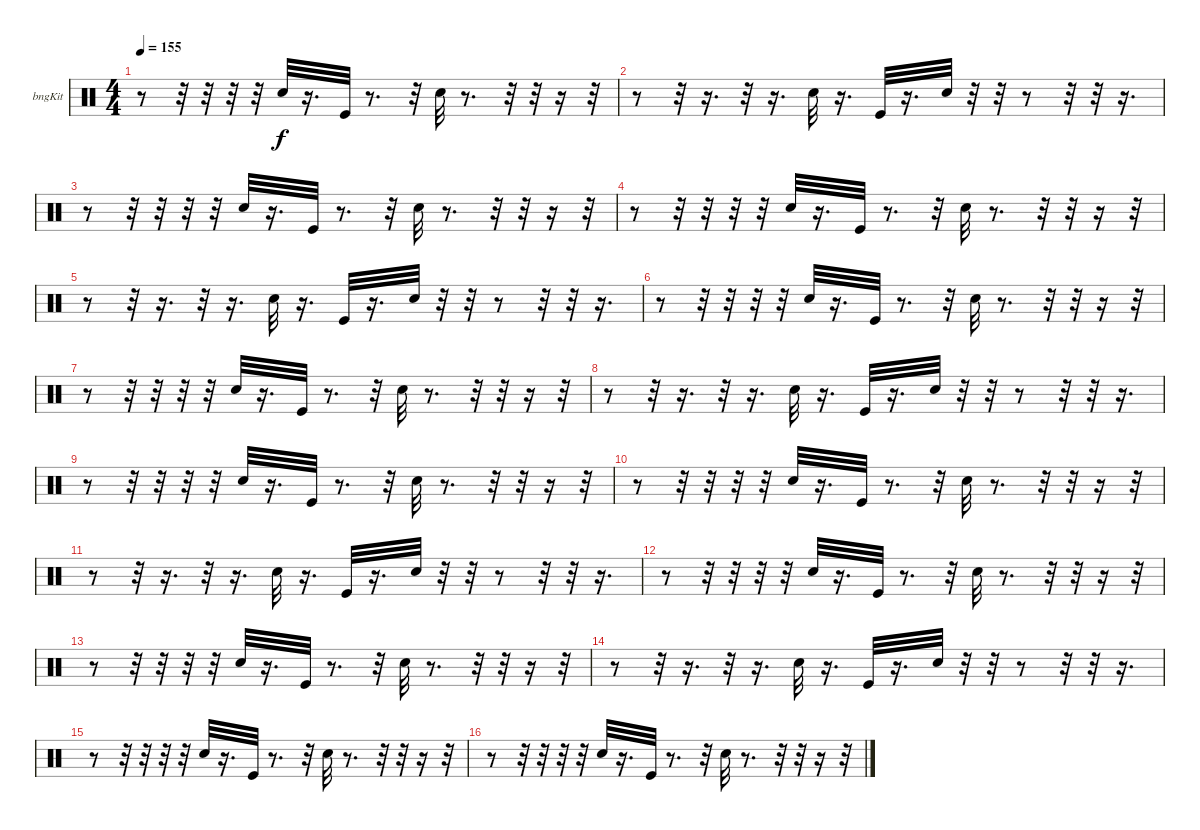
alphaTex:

\bracketExtendMode groupsimilarinstruments
\firstSystemTrackNameOrientation horizontal
\otherSystemsTrackNameOrientation horizontal
\track ("Е. Кулаков" "bngKit") {instrument percussion}
\staff {score}
\articulation defaults
\ts (4 4)
\tempo 155
\clef neutral
\ks c
r.8{dy f} r.32 r.32 r.32 r.32 "Snare (hit) 2".32 r.16{d} "Kick (hit)".32 r.8{d} r.32 "Snare (hit) 2".32 r.8{d} r.32 r.32 r.16 r.32 |
r.8 r.32 r.16{d} r.32 r.16{d} "Snare (hit) 2".32 r.16{d} "Kick (hit)".32 r.16{d} "Snare (hit) 2".32 r.32 r.32 r.8 r.32 r.32 r.16{d} |
r.8 r.32 r.32 r.32 r.32 "Snare (hit) 2".32 r.16{d} "Kick (hit)".32 r.8{d} r.32 "Snare (hit) 2".32 r.8{d} r.32 r.32 r.16 r.32 |
r.8 r.32 r.32 r.32 r.32 "Snare (hit) 2".32 r.16{d} "Kick (hit)".32 r.8{d} r.32 "Snare (hit) 2".32 r.8{d} r.32 r.32 r.16 r.32 |
r.8 r.32 r.16{d} r.32 r.16{d} "Snare (hit) 2".32 r.16{d} "Kick (hit)".32 r.16{d} "Snare (hit) 2".32 r.32 r.32 r.8 r.32 r.32 r.16{d} |
r.8 r.32 r.32 r.32 r.32 "Snare (hit) 2".32 r.16{d} "Kick (hit)".32 r.8{d} r.32 "Snare (hit) 2".32 r.8{d} r.32 r.32 r.16 r.32 |
r.8 r.32 r.32 r.32 r.32 "Snare (hit) 2".32 r.16{d} "Kick (hit)".32 r.8{d} r.32 "Snare (hit) 2".32 r.8{d} r.32 r.32 r.16 r.32 |
r.8 r.32 r.16{d} r.32 r.16{d} "Snare (hit) 2".32 r.16{d} "Kick (hit)".32 r.16{d} "Snare (hit) 2".32 r.32 r.32 r.8 r.32 r.32 r.16{d} |
r.8 r.32 r.32 r.32 r.32 "Snare (hit) 2".32 r.16{d} "Kick (hit)".32 r.8{d} r.32 "Snare (hit) 2".32 r.8{d} r.32 r.32 r.16 r.32 |
r.8 r.32 r.32 r.32 r.32 "Snare (hit) 2".32 r.16{d} "Kick (hit)".32 r.8{d} r.32 "Snare (hit) 2".32 r.8{d} r.32 r.32 r.16 r.32 |
r.8 r.32 r.16{d} r.32 r.16{d} "Snare (hit) 2".32 r.16{d} "Kick (hit)".32 r.16{d} "Snare (hit) 2".32 r.32 r.32 r.8 r.32 r.32 r.16{d} |
r.8 r.32 r.32 r.32 r.32 "Snare (hit) 2".32 r.16{d} "Kick (hit)".32 r.8{d} r.32 "Snare (hit) 2".32 r.8{d} r.32 r.32 r.16 r.32 |
r.8 r.32 r.32 r.32 r.32 "Snare (hit) 2".32 r.16{d} "Kick (hit)".32 r.8{d} r.32 "Snare (hit) 2".32 r.8{d} r.32 r.32 r.16 r.32 |
r.8 r.32 r.16{d} r.32 r.16{d} "Snare (hit) 2".32 r.16{d} "Kick (hit)".32 r.16{d} "Snare (hit) 2".32 r.32 r.32 r.8 r.32 r.32 r.16{d} |
r.8 r.32 r.32 r.32 r.32 "Snare (hit) 2".32 r.16{d} "Kick (hit)".32 r.8{d} r.32 "Snare (hit) 2".32 r.8{d} r.32 r.32 r.16 r.32 |
r.8 r.32 r.32 r.32 r.32 "Snare (hit) 2".32 r.16{d} "Kick (hit)".32 r.8{d} r.32 "Snare (hit) 2".32 r.8{d} r.32 r.32 r.16 r.32
